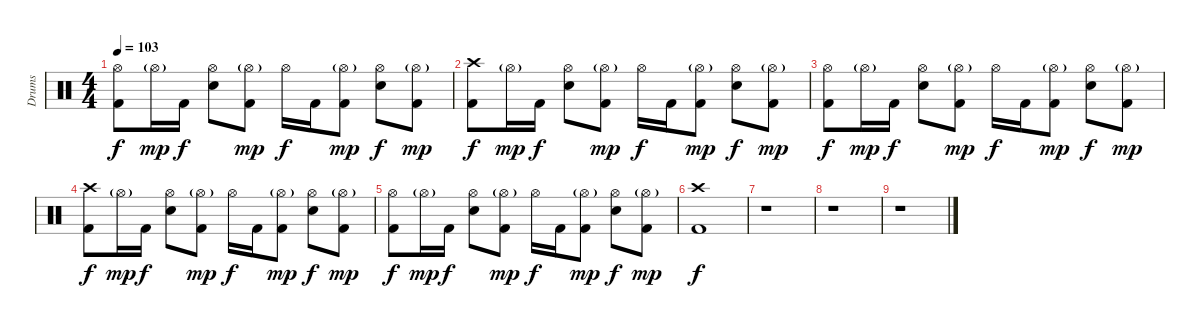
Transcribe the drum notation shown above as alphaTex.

\track ("Drums" "Drums") {instrument percussion}
\staff {score}
\articulation defaults
\ts (4 4)
\tempo 103
\clef neutral
\ks c
("Hi-Hat (open)" "Kick (hit) 2").8{dy f} "Hi-Hat (open)"{g}.16{dy mp} "Kick (hit) 2".16{dy f} ("Hi-Hat (open)" "Snare (hit) 2").8 ("Hi-Hat (open)"{g} "Kick (hit) 2").8{dy mp} "Hi-Hat (open)".16{dy f} "Kick (hit) 2".16 ("Hi-Hat (open)"{g} "Kick (hit) 2").8{dy mp} ("Hi-Hat (open)" "Snare (hit) 2").8{dy f} ("Hi-Hat (open)"{g} "Kick (hit) 2").8{dy mp} |
("Crash high (hit)" "Kick (hit) 2").8{dy f} "Hi-Hat (open)"{g}.16{dy mp} "Kick (hit) 2".16{dy f} ("Hi-Hat (open)" "Snare (hit) 2").8 ("Hi-Hat (open)"{g} "Kick (hit) 2").8{dy mp} "Hi-Hat (open)".16{dy f} "Kick (hit) 2".16 ("Hi-Hat (open)"{g} "Kick (hit) 2").8{dy mp} ("Hi-Hat (open)" "Snare (hit) 2").8{dy f} ("Hi-Hat (open)"{g} "Kick (hit) 2").8{dy mp} |
("Hi-Hat (open)" "Kick (hit) 2").8{dy f} "Hi-Hat (open)"{g}.16{dy mp} "Kick (hit) 2".16{dy f} ("Hi-Hat (open)" "Snare (hit) 2").8 ("Hi-Hat (open)"{g} "Kick (hit) 2").8{dy mp} "Hi-Hat (open)".16{dy f} "Kick (hit) 2".16 ("Hi-Hat (open)"{g} "Kick (hit) 2").8{dy mp} ("Hi-Hat (open)" "Snare (hit) 2").8{dy f} ("Hi-Hat (open)"{g} "Kick (hit) 2").8{dy mp} |
("Crash high (hit)" "Kick (hit) 2").8{dy f} "Hi-Hat (open)"{g}.16{dy mp} "Kick (hit) 2".16{dy f} ("Hi-Hat (open)" "Snare (hit) 2").8 ("Hi-Hat (open)"{g} "Kick (hit) 2").8{dy mp} "Hi-Hat (open)".16{dy f} "Kick (hit) 2".16 ("Hi-Hat (open)"{g} "Kick (hit) 2").8{dy mp} ("Hi-Hat (open)" "Snare (hit) 2").8{dy f} ("Hi-Hat (open)"{g} "Kick (hit) 2").8{dy mp} |
("Hi-Hat (open)" "Kick (hit) 2").8{dy f} "Hi-Hat (open)"{g}.16{dy mp} "Kick (hit) 2".16{dy f} ("Hi-Hat (open)" "Snare (hit) 2").8 ("Hi-Hat (open)"{g} "Kick (hit) 2").8{dy mp} "Hi-Hat (open)".16{dy f} "Kick (hit) 2".16 ("Hi-Hat (open)"{g} "Kick (hit) 2").8{dy mp} ("Hi-Hat (open)" "Snare (hit) 2").8{dy f} ("Hi-Hat (open)"{g} "Kick (hit) 2").8{dy mp} |
("Crash high (hit)" "Kick (hit) 2").1{dy f} |
r.1 |
r.1 |
r.1
